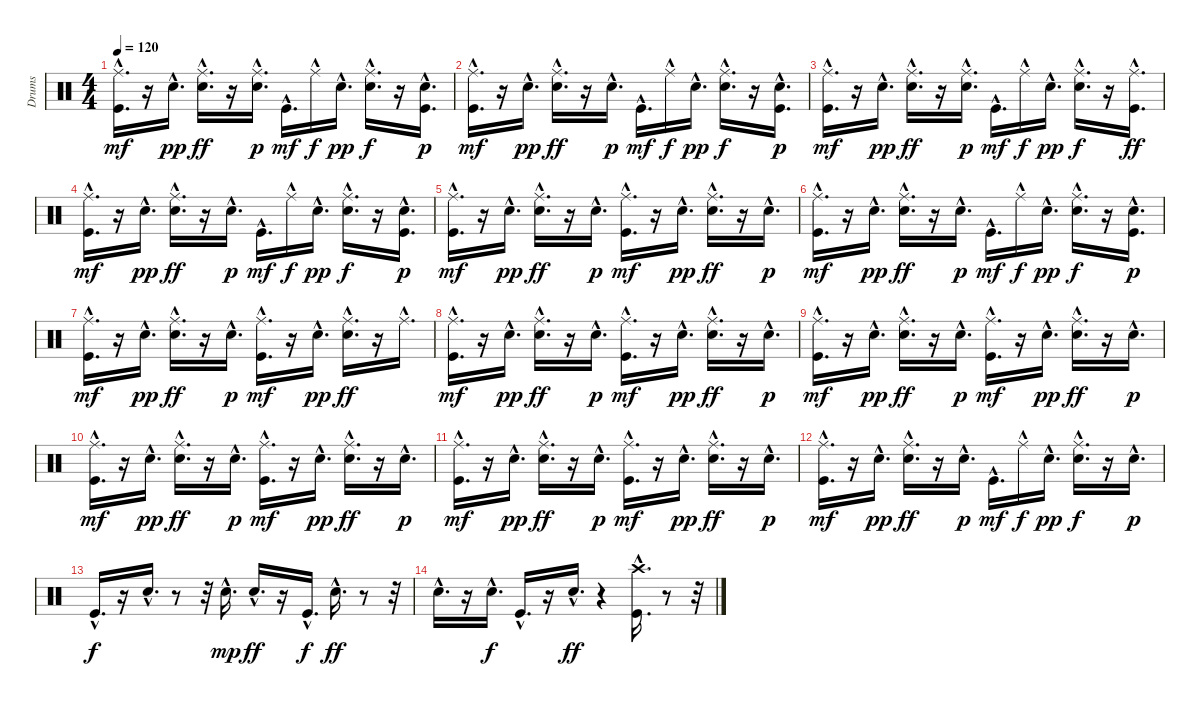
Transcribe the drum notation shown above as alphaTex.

\track ("Drums" "Drums") {instrument percussion}
\staff {score}
\articulation defaults
\ts (4 4)
\tempo 120
\clef neutral
\ks c
("Kick (hit)"{hac} "Ride (middle)"{hac}).16{d dy mf} r.16 "Snare (hit) 2"{hac}.16{d dy pp} ("Snare (hit) 2"{hac} "Ride (middle)"{hac}).16{d dy ff} r.16 ("Snare (hit) 2"{hac} "Ride (middle)"{hac}).16{d dy p} "Kick (hit)"{hac}.16{d dy mf} "Ride (middle)"{hac}.16{dy f} "Snare (hit) 2"{hac}.16{d dy pp} ("Snare (hit) 2"{hac} "Ride (middle)"{hac}).16{d dy f} r.16 ("Kick (hit)"{hac} "Snare (hit) 2"{hac}).16{d dy p} |
("Kick (hit)"{hac} "Ride (middle)"{hac}).16{d dy mf} r.16 "Snare (hit) 2"{hac}.16{d dy pp} ("Snare (hit) 2"{hac} "Ride (middle)"{hac}).16{d dy ff} r.16 "Snare (hit) 2"{hac}.16{d dy p} "Kick (hit)"{hac}.16{d dy mf} "Ride (middle)"{hac}.16{dy f} "Snare (hit) 2"{hac}.16{d dy pp} ("Snare (hit) 2"{hac} "Ride (middle)"{hac}).16{d dy f} r.16 ("Kick (hit)"{hac} "Snare (hit) 2"{hac}).16{d dy p} |
("Kick (hit)"{hac} "Ride (middle)"{hac}).16{d dy mf} r.16 "Snare (hit) 2"{hac}.16{d dy pp} ("Snare (hit) 2"{hac} "Ride (middle)"{hac}).16{d dy ff} r.16 ("Snare (hit) 2"{hac} "Ride (middle)"{hac}).16{d dy p} "Kick (hit)"{hac}.16{d dy mf} "Ride (middle)"{hac}.16{dy f} "Snare (hit) 2"{hac}.16{d dy pp} ("Snare (hit) 2"{hac} "Ride (middle)"{hac}).16{d dy f} r.16 ("Kick (hit)"{hac} "Ride (middle)"{hac}).16{d dy ff} |
("Kick (hit)"{hac} "Ride (middle)"{hac}).16{d dy mf} r.16 "Snare (hit) 2"{hac}.16{d dy pp} ("Snare (hit) 2"{hac} "Ride (middle)"{hac}).16{d dy ff} r.16 "Snare (hit) 2"{hac}.16{d dy p} "Kick (hit)"{hac}.16{d dy mf} "Ride (middle)"{hac}.16{dy f} "Snare (hit) 2"{hac}.16{d dy pp} ("Snare (hit) 2"{hac} "Ride (middle)"{hac}).16{d dy f} r.16 ("Kick (hit)"{hac} "Snare (hit) 2"{hac}).16{d dy p} |
("Kick (hit)"{hac} "Ride (middle)"{hac}).16{d dy mf} r.16 "Snare (hit) 2"{hac}.16{d dy pp} ("Snare (hit) 2"{hac} "Ride (middle)"{hac}).16{d dy ff} r.16 "Snare (hit) 2"{hac}.16{d dy p} ("Kick (hit)"{hac} "Ride (middle)"{hac}).16{d dy mf} r.16 "Snare (hit) 2"{hac}.16{d dy pp} ("Snare (hit) 2"{hac} "Ride (middle)"{hac}).16{d dy ff} r.16 "Snare (hit) 2"{hac}.16{d dy p} |
("Kick (hit)"{hac} "Ride (middle)"{hac}).16{d dy mf} r.16 "Snare (hit) 2"{hac}.16{d dy pp} ("Snare (hit) 2"{hac} "Ride (middle)"{hac}).16{d dy ff} r.16 "Snare (hit) 2"{hac}.16{d dy p} "Kick (hit)"{hac}.16{d dy mf} "Ride (middle)"{hac}.16{dy f} "Snare (hit) 2"{hac}.16{d dy pp} ("Snare (hit) 2"{hac} "Ride (middle)"{hac}).16{d dy f} r.16 ("Kick (hit)"{hac} "Snare (hit) 2"{hac}).16{d dy p} |
("Kick (hit)"{hac} "Ride (middle)"{hac}).16{d dy mf} r.16 "Snare (hit) 2"{hac}.16{d dy pp} ("Snare (hit) 2"{hac} "Ride (middle)"{hac}).16{d dy ff} r.16 "Snare (hit) 2"{hac}.16{d dy p} ("Kick (hit)"{hac} "Ride (middle)"{hac}).16{d dy mf} r.16 "Snare (hit) 2"{hac}.16{d dy pp} ("Snare (hit) 2"{hac} "Ride (middle)"{hac}).16{d dy ff} r.16 "Ride (middle)"{hac}.16{d} |
("Kick (hit)"{hac} "Ride (middle)"{hac}).16{d dy mf} r.16 "Snare (hit) 2"{hac}.16{d dy pp} ("Snare (hit) 2"{hac} "Ride (middle)"{hac}).16{d dy ff} r.16 "Snare (hit) 2"{hac}.16{d dy p} ("Kick (hit)"{hac} "Ride (middle)"{hac}).16{d dy mf} r.16 "Snare (hit) 2"{hac}.16{d dy pp} ("Snare (hit) 2"{hac} "Ride (middle)"{hac}).16{d dy ff} r.16 "Snare (hit) 2"{hac}.16{d dy p} |
("Kick (hit)"{hac} "Ride (middle)"{hac}).16{d dy mf} r.16 "Snare (hit) 2"{hac}.16{d dy pp} ("Snare (hit) 2"{hac} "Ride (middle)"{hac}).16{d dy ff} r.16 "Snare (hit) 2"{hac}.16{d dy p} ("Kick (hit)"{hac} "Ride (middle)"{hac}).16{d dy mf} r.16 "Snare (hit) 2"{hac}.16{d dy pp} ("Snare (hit) 2"{hac} "Ride (middle)"{hac}).16{d dy ff} r.16 "Snare (hit) 2"{hac}.16{d dy p} |
("Kick (hit)"{hac} "Ride (middle)"{hac}).16{d dy mf} r.16 "Snare (hit) 2"{hac}.16{d dy pp} ("Snare (hit) 2"{hac} "Ride (middle)"{hac}).16{d dy ff} r.16 "Snare (hit) 2"{hac}.16{d dy p} ("Kick (hit)"{hac} "Ride (middle)"{hac}).16{d dy mf} r.16 "Snare (hit) 2"{hac}.16{d dy pp} ("Snare (hit) 2"{hac} "Ride (middle)"{hac}).16{d dy ff} r.16 "Snare (hit) 2"{hac}.16{d dy p} |
("Kick (hit)"{hac} "Ride (middle)"{hac}).16{d dy mf} r.16 "Snare (hit) 2"{hac}.16{d dy pp} ("Snare (hit) 2"{hac} "Ride (middle)"{hac}).16{d dy ff} r.16 "Snare (hit) 2"{hac}.16{d dy p} ("Kick (hit)"{hac} "Ride (middle)"{hac}).16{d dy mf} r.16 "Snare (hit) 2"{hac}.16{d dy pp} ("Snare (hit) 2"{hac} "Ride (middle)"{hac}).16{d dy ff} r.16 "Snare (hit) 2"{hac}.16{d dy p} |
("Kick (hit)"{hac} "Ride (middle)"{hac}).16{d dy mf} r.16 "Snare (hit) 2"{hac}.16{d dy pp} ("Snare (hit) 2"{hac} "Ride (middle)"{hac}).16{d dy ff} r.16 "Snare (hit) 2"{hac}.16{d dy p} "Kick (hit)"{hac}.16{d dy mf} "Ride (middle)"{hac}.16{dy f} "Snare (hit) 2"{hac}.16{d dy pp} ("Snare (hit) 2"{hac} "Ride (middle)"{hac}).16{d dy f} r.16 "Snare (hit) 2"{hac}.16{d dy p} |
"Kick (hit)"{hac}.16{d dy f} r.16 "Snare (hit) 2"{hac}.16{d} r.8 r.32 "Snare (hit) 2"{hac}.16{d dy mp} "Snare (hit) 2"{hac}.16{d dy ff} r.16 "Kick (hit)"{hac}.16{d dy f} "Snare (hit) 2"{hac}.16{d dy ff} r.8 r.32 |
"Snare (hit) 2"{hac}.16{d} r.16 "Snare (hit) 2"{hac}.16{d dy f} "Kick (hit)"{hac}.16{d} r.16 "Snare (hit) 2"{hac}.16{d dy ff} r.4 ("Kick (hit)"{hac} "Crash high (hit)"{hac}).16{d} r.8 r.32
